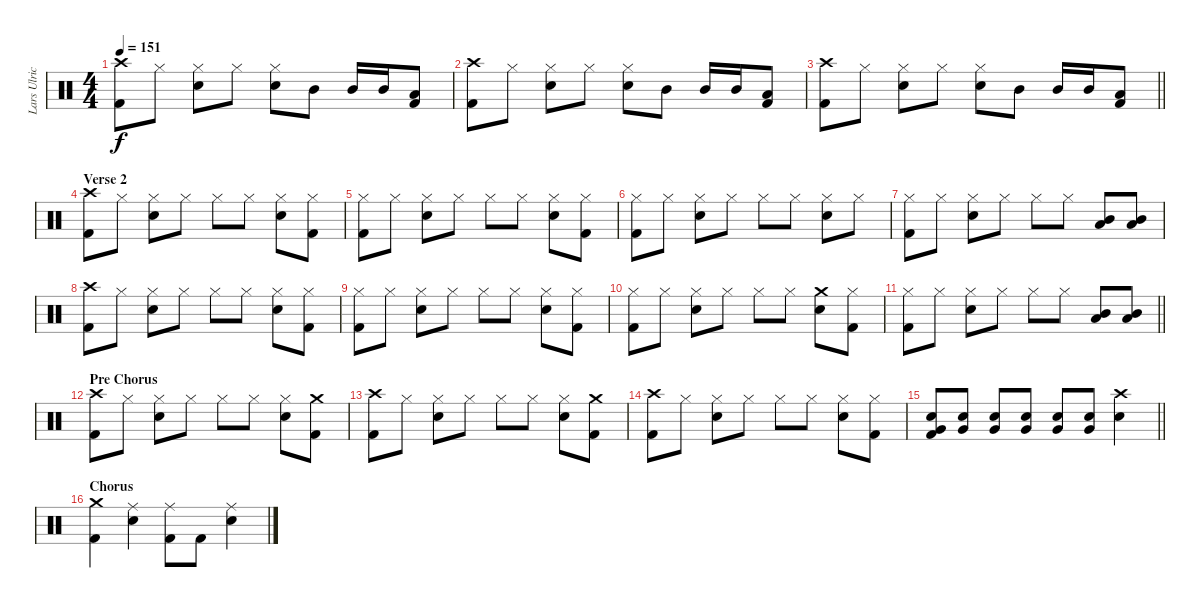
\track ("Lars Ulrich" "Lars Ulric") {instrument percussion}
\staff {score}
\articulation defaults
\ts (4 4)
\tempo 151
\clef neutral
\ks c
("Crash high (hit)" "Kick (hit) 2").8{dy f} "Hi-Hat (closed)".8 ("Hi-Hat (closed)" "Snare (hit) 2").8 "Hi-Hat (closed)".8 ("Hi-Hat (closed)" "Snare (hit) 2").8 "Mid Tom (hit)".8 "Mid Tom (hit)".16 "Mid Tom (hit)".16 ("Low Tom (hit)" "Kick (hit) 2").8 |
("Crash high (hit)" "Kick (hit) 2").8 "Hi-Hat (closed)".8 ("Hi-Hat (closed)" "Snare (hit) 2").8 "Hi-Hat (closed)".8 ("Hi-Hat (closed)" "Snare (hit) 2").8 "Mid Tom (hit)".8 "Mid Tom (hit)".16 "Mid Tom (hit)".16 ("Low Tom (hit)" "Kick (hit) 2").8 |
\barLineRight lightlight
("Crash high (hit)" "Kick (hit) 2").8 "Hi-Hat (closed)".8 ("Hi-Hat (closed)" "Snare (hit) 2").8 "Hi-Hat (closed)".8 ("Hi-Hat (closed)" "Snare (hit) 2").8 "Mid Tom (hit)".8 "Mid Tom (hit)".16 "Mid Tom (hit)".16 ("Low Tom (hit)" "Kick (hit) 2").8 |
\section ("" "Verse 2")
("Crash high (hit)" "Kick (hit) 2").8 "Hi-Hat (closed)".8 ("Hi-Hat (closed)" "Snare (hit) 2").8 "Hi-Hat (closed)".8 "Hi-Hat (closed)".8 "Hi-Hat (closed)".8 ("Hi-Hat (closed)" "Snare (hit) 2").8 ("Hi-Hat (closed)" "Kick (hit) 2").8 |
("Hi-Hat (closed)" "Kick (hit) 2").8 "Hi-Hat (closed)".8 ("Hi-Hat (closed)" "Snare (hit) 2").8 "Hi-Hat (closed)".8 "Hi-Hat (closed)".8 "Hi-Hat (closed)".8 ("Hi-Hat (closed)" "Snare (hit) 2").8 ("Hi-Hat (closed)" "Kick (hit) 2").8 |
("Hi-Hat (closed)" "Kick (hit) 2").8 "Hi-Hat (closed)".8 ("Hi-Hat (closed)" "Snare (hit) 2").8 "Hi-Hat (closed)".8 "Hi-Hat (closed)".8 "Hi-Hat (closed)".8 ("Hi-Hat (closed)" "Snare (hit) 2").8 "Hi-Hat (closed)".8 |
("Hi-Hat (closed)" "Kick (hit) 2").8 "Hi-Hat (closed)".8 ("Hi-Hat (closed)" "Snare (hit) 2").8 "Hi-Hat (closed)".8 "Hi-Hat (closed)".8 "Hi-Hat (closed)".8 ("Low Tom (hit)" "Mid Tom (hit)").8 ("Low Tom (hit)" "Mid Tom (hit)").8 |
("Crash high (hit)" "Kick (hit) 2").8 "Hi-Hat (closed)".8 ("Hi-Hat (closed)" "Snare (hit) 2").8 "Hi-Hat (closed)".8 "Hi-Hat (closed)".8 "Hi-Hat (closed)".8 ("Hi-Hat (closed)" "Snare (hit) 2").8 ("Hi-Hat (closed)" "Kick (hit) 2").8 |
("Hi-Hat (closed)" "Kick (hit) 2").8 "Hi-Hat (closed)".8 ("Hi-Hat (closed)" "Snare (hit) 2").8 "Hi-Hat (closed)".8 "Hi-Hat (closed)".8 "Hi-Hat (closed)".8 ("Hi-Hat (closed)" "Snare (hit) 2").8 ("Hi-Hat (closed)" "Kick (hit) 2").8 |
("Hi-Hat (closed)" "Kick (hit) 2").8 "Hi-Hat (closed)".8 ("Hi-Hat (closed)" "Snare (hit) 2").8 "Hi-Hat (closed)".8 "Hi-Hat (closed)".8 "Hi-Hat (closed)".8 ("Crash medium (hit)" "Snare (hit) 2").8 ("Hi-Hat (closed)" "Kick (hit) 2").8 |
\barLineRight lightlight
("Hi-Hat (closed)" "Kick (hit) 2").8 "Hi-Hat (closed)".8 ("Hi-Hat (closed)" "Snare (hit) 2").8 "Hi-Hat (closed)".8 "Hi-Hat (closed)".8 "Hi-Hat (closed)".8 ("Low Tom (hit)" "Mid Tom (hit)").8 ("Low Tom (hit)" "Mid Tom (hit)").8 |
\section ("" "Pre Chorus")
("Crash high (hit)" "Kick (hit) 2").8 "Hi-Hat (closed)".8 ("Hi-Hat (closed)" "Snare (hit) 2").8 "Hi-Hat (closed)".8 "Hi-Hat (closed)".8 "Hi-Hat (closed)".8 ("Hi-Hat (closed)" "Snare (hit) 2").8 ("Crash medium (hit)" "Kick (hit) 2").8 |
("Crash high (hit)" "Kick (hit) 2").8 "Hi-Hat (closed)".8 ("Hi-Hat (closed)" "Snare (hit) 2").8 "Hi-Hat (closed)".8 "Hi-Hat (closed)".8 "Hi-Hat (closed)".8 ("Hi-Hat (closed)" "Snare (hit) 2").8 ("Crash medium (hit)" "Kick (hit) 2").8 |
("Crash high (hit)" "Kick (hit) 2").8 "Hi-Hat (closed)".8 ("Hi-Hat (closed)" "Snare (hit) 2").8 "Hi-Hat (closed)".8 "Hi-Hat (closed)".8 "Hi-Hat (closed)".8 ("Hi-Hat (closed)" "Snare (hit) 2").8 ("Hi-Hat (closed)" "Kick (hit) 2").8 |
\barLineRight lightlight
("Very Low Tom (hit)" "Snare (hit) 2" "Kick (hit) 2").8 ("Very Low Tom (hit)" "Snare (hit) 2").8 ("Very Low Tom (hit)" "Snare (hit) 2").8 ("Very Low Tom (hit)" "Snare (hit) 2").8 ("Very Low Tom (hit)" "Snare (hit) 2").8 ("Very Low Tom (hit)" "Snare (hit) 2").8 ("Crash high (hit)" "Snare (hit) 2").4 |
\section ("" "Chorus")
("Crash medium (hit)" "Kick (hit) 2").4 ("Ride (middle)" "Snare (hit) 2").4 ("Ride (middle)" "Kick (hit) 2").8 "Kick (hit) 2".8 ("Ride (middle)" "Snare (hit) 2").4
